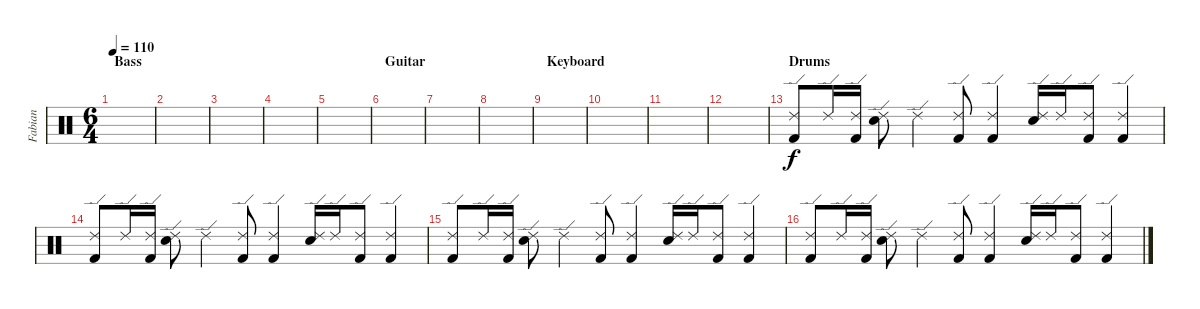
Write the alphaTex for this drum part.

\track ("Fabian" "Fabian") {instrument percussion}
\staff {score}
\articulation defaults
\ts (6 4)
\section ("" "Bass")
\tempo 110
\clef neutral
\ks c
|
|
|
|
|
\section ("" "Guitar")
|
|
|
\section ("" "Keyboard")
|
|
|
|
\section ("" "Drums")
("Ride (edge) 2" "Kick (hit) 2").8 "Ride (edge) 2".16 ("Ride (edge) 2" "Kick (hit) 2").16 ("Ride (edge) 2" "Snare (hit) 2").8 "Ride (edge) 2".4 ("Ride (edge) 2" "Kick (hit) 2").8 ("Ride (edge) 2" "Kick (hit) 2").4 ("Ride (edge) 2" "Snare (hit) 2").16 "Ride (edge) 2".16 ("Ride (edge) 2" "Kick (hit) 2").8 ("Ride (edge) 2" "Kick (hit) 2").4 |
("Ride (edge) 2" "Kick (hit) 2").8 "Ride (edge) 2".16 ("Ride (edge) 2" "Kick (hit) 2").16 ("Ride (edge) 2" "Snare (hit) 2").8 "Ride (edge) 2".4 ("Ride (edge) 2" "Kick (hit) 2").8 ("Ride (edge) 2" "Kick (hit) 2").4 ("Ride (edge) 2" "Snare (hit) 2").16 "Ride (edge) 2".16 ("Ride (edge) 2" "Kick (hit) 2").8 ("Ride (edge) 2" "Kick (hit) 2").4 |
("Ride (edge) 2" "Kick (hit) 2").8 "Ride (edge) 2".16 ("Ride (edge) 2" "Kick (hit) 2").16 ("Ride (edge) 2" "Snare (hit) 2").8 "Ride (edge) 2".4 ("Ride (edge) 2" "Kick (hit) 2").8 ("Ride (edge) 2" "Kick (hit) 2").4 ("Ride (edge) 2" "Snare (hit) 2").16 "Ride (edge) 2".16 ("Ride (edge) 2" "Kick (hit) 2").8 ("Ride (edge) 2" "Kick (hit) 2").4 |
("Ride (edge) 2" "Kick (hit) 2").8 "Ride (edge) 2".16 ("Ride (edge) 2" "Kick (hit) 2").16 ("Ride (edge) 2" "Snare (hit) 2").8 "Ride (edge) 2".4 ("Ride (edge) 2" "Kick (hit) 2").8 ("Ride (edge) 2" "Kick (hit) 2").4 ("Ride (edge) 2" "Snare (hit) 2").16 "Ride (edge) 2".16 ("Ride (edge) 2" "Kick (hit) 2").8 ("Ride (edge) 2" "Kick (hit) 2").4
